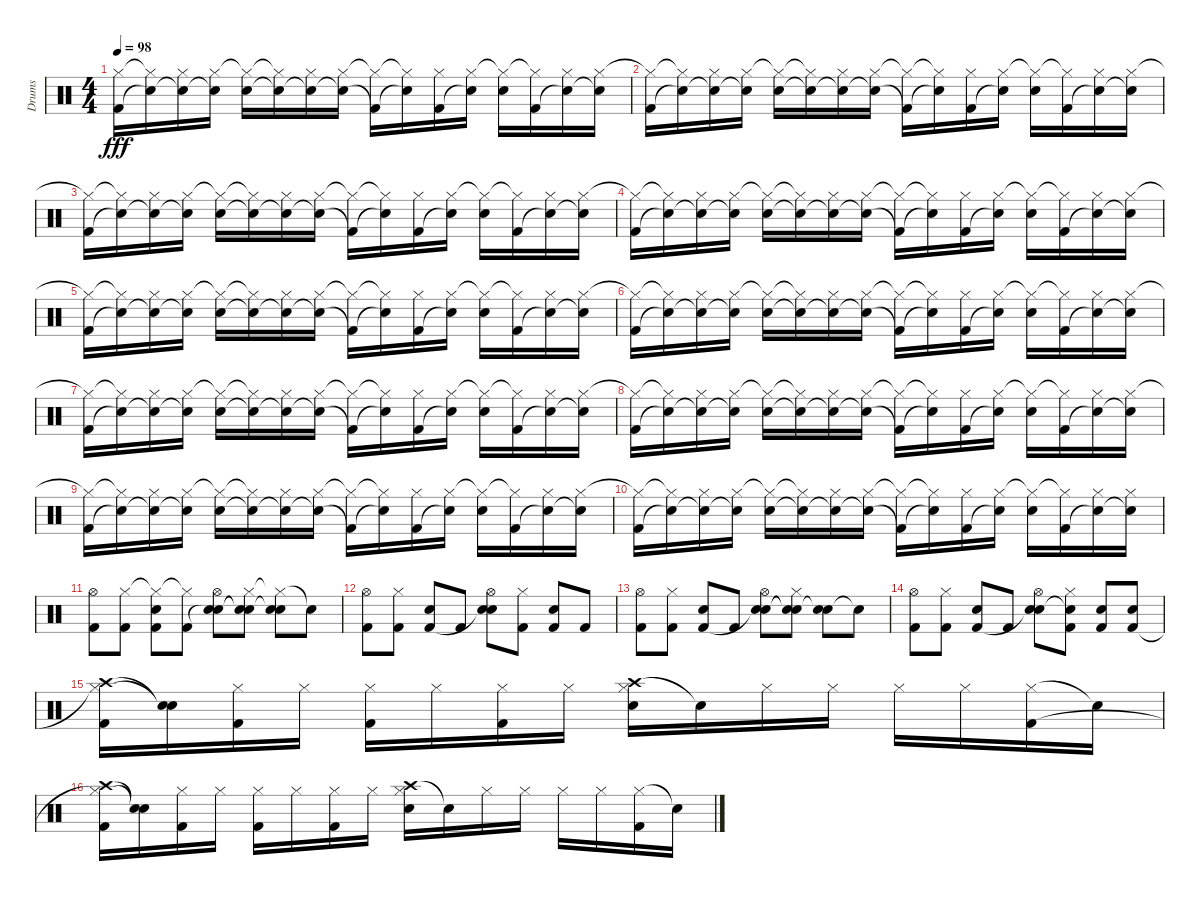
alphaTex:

\track ("Drums" "Drums") {instrument percussion}
\staff {score}
\articulation defaults
\ts (4 4)
\tempo 98
\clef neutral
\ks c
("Hi-Hat (closed)"{t} "Kick (hit) 2").16{dy fff} ("Hi-Hat (closed)"{t} "Snare (hit)"{t}).16 ("Hi-Hat (closed)" "Snare (hit)"{t}).16 ("Hi-Hat (closed)" "Snare (hit)"{t}).16 ("Hi-Hat (closed)"{t} "Electric Snare (hit)").16 ("Hi-Hat (closed)"{t} "Snare (hit)"{t}).16 ("Hi-Hat (closed)" "Snare (hit)"{t}).16 ("Hi-Hat (closed)" "Snare (hit)"{t}).16 ("Hi-Hat (closed)"{t} "Kick (hit) 2"{t}).16 ("Hi-Hat (closed)"{t} "Snare (hit)"{t}).16 ("Hi-Hat (closed)" "Kick (hit) 2").16 ("Hi-Hat (closed)" "Electric Snare (hit)"{t}).16 ("Hi-Hat (closed)"{t} "Electric Snare (hit)").16 ("Hi-Hat (closed)"{t} "Kick (hit) 2").16 ("Hi-Hat (closed)" "Electric Snare (hit)"{t}).16 ("Hi-Hat (closed)" "Snare (hit)"{t}).16 |
("Hi-Hat (closed)"{t} "Kick (hit) 2").16 ("Hi-Hat (closed)"{t} "Snare (hit)"{t}).16 ("Hi-Hat (closed)" "Snare (hit)"{t}).16 ("Hi-Hat (closed)" "Snare (hit)"{t}).16 ("Hi-Hat (closed)"{t} "Electric Snare (hit)").16 ("Hi-Hat (closed)"{t} "Snare (hit)"{t}).16 ("Hi-Hat (closed)" "Snare (hit)"{t}).16 ("Hi-Hat (closed)" "Snare (hit)"{t}).16 ("Hi-Hat (closed)"{t} "Kick (hit) 2"{t}).16 ("Hi-Hat (closed)"{t} "Snare (hit)"{t}).16 ("Hi-Hat (closed)" "Kick (hit) 2").16 ("Hi-Hat (closed)" "Electric Snare (hit)"{t}).16 ("Hi-Hat (closed)"{t} "Electric Snare (hit)").16 ("Hi-Hat (closed)"{t} "Kick (hit) 2").16 ("Hi-Hat (closed)" "Electric Snare (hit)"{t}).16 ("Hi-Hat (closed)" "Snare (hit)"{t}).16 |
("Hi-Hat (closed)"{t} "Kick (hit) 2").16 ("Hi-Hat (closed)"{t} "Snare (hit)"{t}).16 ("Hi-Hat (closed)" "Snare (hit)"{t}).16 ("Hi-Hat (closed)" "Snare (hit)"{t}).16 ("Hi-Hat (closed)"{t} "Electric Snare (hit)").16 ("Hi-Hat (closed)"{t} "Snare (hit)"{t}).16 ("Hi-Hat (closed)" "Snare (hit)"{t}).16 ("Hi-Hat (closed)" "Snare (hit)"{t}).16 ("Hi-Hat (closed)"{t} "Kick (hit) 2"{t}).16 ("Hi-Hat (closed)"{t} "Snare (hit)"{t}).16 ("Hi-Hat (closed)" "Kick (hit) 2").16 ("Hi-Hat (closed)" "Electric Snare (hit)"{t}).16 ("Hi-Hat (closed)"{t} "Electric Snare (hit)").16 ("Hi-Hat (closed)"{t} "Kick (hit) 2").16 ("Hi-Hat (closed)" "Electric Snare (hit)"{t}).16 ("Hi-Hat (closed)" "Snare (hit)"{t}).16 |
("Hi-Hat (closed)"{t} "Kick (hit) 2").16 ("Hi-Hat (closed)"{t} "Snare (hit)"{t}).16 ("Hi-Hat (closed)" "Snare (hit)"{t}).16 ("Hi-Hat (closed)" "Snare (hit)"{t}).16 ("Hi-Hat (closed)"{t} "Electric Snare (hit)").16 ("Hi-Hat (closed)"{t} "Snare (hit)"{t}).16 ("Hi-Hat (closed)" "Snare (hit)"{t}).16 ("Hi-Hat (closed)" "Snare (hit)"{t}).16 ("Hi-Hat (closed)"{t} "Kick (hit) 2"{t}).16 ("Hi-Hat (closed)"{t} "Snare (hit)"{t}).16 ("Hi-Hat (closed)" "Kick (hit) 2").16 ("Hi-Hat (closed)" "Electric Snare (hit)"{t}).16 ("Hi-Hat (closed)"{t} "Electric Snare (hit)").16 ("Hi-Hat (closed)"{t} "Kick (hit) 2").16 ("Hi-Hat (closed)" "Electric Snare (hit)"{t}).16 ("Hi-Hat (closed)" "Snare (hit)"{t}).16 |
("Hi-Hat (closed)"{t} "Kick (hit) 2").16 ("Hi-Hat (closed)"{t} "Snare (hit)"{t}).16 ("Hi-Hat (closed)" "Snare (hit)"{t}).16 ("Hi-Hat (closed)" "Snare (hit)"{t}).16 ("Hi-Hat (closed)"{t} "Electric Snare (hit)").16 ("Hi-Hat (closed)"{t} "Snare (hit)"{t}).16 ("Hi-Hat (closed)" "Snare (hit)"{t}).16 ("Hi-Hat (closed)" "Snare (hit)"{t}).16 ("Hi-Hat (closed)"{t} "Kick (hit) 2"{t}).16 ("Hi-Hat (closed)"{t} "Snare (hit)"{t}).16 ("Hi-Hat (closed)" "Kick (hit) 2").16 ("Hi-Hat (closed)" "Electric Snare (hit)"{t}).16 ("Hi-Hat (closed)"{t} "Electric Snare (hit)").16 ("Hi-Hat (closed)"{t} "Kick (hit) 2").16 ("Hi-Hat (closed)" "Electric Snare (hit)"{t}).16 ("Hi-Hat (closed)" "Snare (hit)"{t}).16 |
("Hi-Hat (closed)"{t} "Kick (hit) 2").16 ("Hi-Hat (closed)"{t} "Snare (hit)"{t}).16 ("Hi-Hat (closed)" "Snare (hit)"{t}).16 ("Hi-Hat (closed)" "Snare (hit)"{t}).16 ("Hi-Hat (closed)"{t} "Electric Snare (hit)").16 ("Hi-Hat (closed)"{t} "Snare (hit)"{t}).16 ("Hi-Hat (closed)" "Snare (hit)"{t}).16 ("Hi-Hat (closed)" "Snare (hit)"{t}).16 ("Hi-Hat (closed)"{t} "Kick (hit) 2"{t}).16 ("Hi-Hat (closed)"{t} "Snare (hit)"{t}).16 ("Hi-Hat (closed)" "Kick (hit) 2").16 ("Hi-Hat (closed)" "Electric Snare (hit)"{t}).16 ("Hi-Hat (closed)"{t} "Electric Snare (hit)").16 ("Hi-Hat (closed)"{t} "Kick (hit) 2").16 ("Hi-Hat (closed)" "Electric Snare (hit)"{t}).16 ("Hi-Hat (closed)" "Snare (hit)"{t}).16 |
("Hi-Hat (closed)"{t} "Kick (hit) 2").16 ("Hi-Hat (closed)"{t} "Snare (hit)"{t}).16 ("Hi-Hat (closed)" "Snare (hit)"{t}).16 ("Hi-Hat (closed)" "Snare (hit)"{t}).16 ("Hi-Hat (closed)"{t} "Electric Snare (hit)").16 ("Hi-Hat (closed)"{t} "Snare (hit)"{t}).16 ("Hi-Hat (closed)" "Snare (hit)"{t}).16 ("Hi-Hat (closed)" "Snare (hit)"{t}).16 ("Hi-Hat (closed)"{t} "Kick (hit) 2"{t}).16 ("Hi-Hat (closed)"{t} "Snare (hit)"{t}).16 ("Hi-Hat (closed)" "Kick (hit) 2").16 ("Hi-Hat (closed)" "Electric Snare (hit)"{t}).16 ("Hi-Hat (closed)"{t} "Electric Snare (hit)").16 ("Hi-Hat (closed)"{t} "Kick (hit) 2").16 ("Hi-Hat (closed)" "Electric Snare (hit)"{t}).16 ("Hi-Hat (closed)" "Snare (hit)"{t}).16 |
("Hi-Hat (closed)"{t} "Kick (hit) 2").16 ("Hi-Hat (closed)"{t} "Snare (hit)"{t}).16 ("Hi-Hat (closed)" "Snare (hit)"{t}).16 ("Hi-Hat (closed)" "Snare (hit)"{t}).16 ("Hi-Hat (closed)"{t} "Electric Snare (hit)").16 ("Hi-Hat (closed)"{t} "Snare (hit)"{t}).16 ("Hi-Hat (closed)" "Snare (hit)"{t}).16 ("Hi-Hat (closed)" "Snare (hit)"{t}).16 ("Hi-Hat (closed)"{t} "Kick (hit) 2"{t}).16 ("Hi-Hat (closed)"{t} "Snare (hit)"{t}).16 ("Hi-Hat (closed)" "Kick (hit) 2").16 ("Hi-Hat (closed)" "Electric Snare (hit)"{t}).16 ("Hi-Hat (closed)"{t} "Electric Snare (hit)").16 ("Hi-Hat (closed)"{t} "Kick (hit) 2").16 ("Hi-Hat (closed)" "Electric Snare (hit)"{t}).16 ("Hi-Hat (closed)" "Snare (hit)"{t}).16 |
("Hi-Hat (closed)"{t} "Kick (hit) 2").16 ("Hi-Hat (closed)"{t} "Snare (hit)"{t}).16 ("Hi-Hat (closed)" "Snare (hit)"{t}).16 ("Hi-Hat (closed)" "Snare (hit)"{t}).16 ("Hi-Hat (closed)"{t} "Electric Snare (hit)").16 ("Hi-Hat (closed)"{t} "Snare (hit)"{t}).16 ("Hi-Hat (closed)" "Snare (hit)"{t}).16 ("Hi-Hat (closed)" "Snare (hit)"{t}).16 ("Hi-Hat (closed)"{t} "Kick (hit) 2"{t}).16 ("Hi-Hat (closed)"{t} "Snare (hit)"{t}).16 ("Hi-Hat (closed)" "Kick (hit) 2").16 ("Hi-Hat (closed)" "Electric Snare (hit)"{t}).16 ("Hi-Hat (closed)"{t} "Electric Snare (hit)").16 ("Hi-Hat (closed)"{t} "Kick (hit) 2").16 ("Hi-Hat (closed)" "Electric Snare (hit)"{t}).16 ("Hi-Hat (closed)" "Snare (hit)"{t}).16 |
("Hi-Hat (closed)"{t} "Kick (hit) 2").16 ("Hi-Hat (closed)"{t} "Snare (hit)"{t}).16 ("Hi-Hat (closed)" "Snare (hit)"{t}).16 ("Hi-Hat (closed)" "Snare (hit)"{t}).16 ("Hi-Hat (closed)"{t} "Electric Snare (hit)").16 ("Hi-Hat (closed)"{t} "Snare (hit)"{t}).16 ("Hi-Hat (closed)" "Snare (hit)"{t}).16 ("Hi-Hat (closed)" "Snare (hit)"{t}).16 ("Hi-Hat (closed)"{t} "Kick (hit) 2"{t}).16 ("Hi-Hat (closed)"{t} "Snare (hit)"{t}).16 ("Hi-Hat (closed)" "Kick (hit) 2").16 ("Hi-Hat (closed)" "Electric Snare (hit)"{t}).16 ("Hi-Hat (closed)"{t} "Electric Snare (hit)").16 ("Hi-Hat (closed)"{t} "Kick (hit) 2").16 ("Hi-Hat (closed)" "Electric Snare (hit)"{t}).16 ("Hi-Hat (closed)" "Snare (hit)"{t}).16 |
("Hi-Hat (open)" "Kick (hit) 2").8 ("Hi-Hat (closed)" "Kick (hit) 2").8 ("Hi-Hat (closed)"{t} "Hand Clap (hit)" "Kick (hit) 2").8 ("Hi-Hat (closed)"{t} "Kick (hit) 2").8 ("Hi-Hat (open)" "Hand Clap (hit)"{t} "Electric Snare (hit)").8 ("Hi-Hat (closed)" "Hand Clap (hit)"{t} "Electric Snare (hit)"{t}).8 ("Hi-Hat (closed)"{t} "Hand Clap (hit)" "Snare (hit)"{t}).8 "Snare (hit)"{t}.8 |
("Hi-Hat (open)" "Kick (hit) 2").8 ("Hi-Hat (closed)" "Kick (hit) 2").8 ("Hand Clap (hit)" "Kick (hit) 2").8 "Kick (hit) 2".8 ("Hi-Hat (open)" "Hand Clap (hit)"{t} "Electric Snare (hit)").8 ("Hi-Hat (closed)" "Kick (hit) 2").8 ("Hand Clap (hit)" "Kick (hit) 2").8 "Kick (hit) 2".8 |
("Hi-Hat (open)" "Kick (hit) 2").8 ("Hi-Hat (closed)" "Kick (hit) 2").8 ("Hand Clap (hit)" "Kick (hit) 2").8 "Kick (hit) 2".8 ("Hi-Hat (open)" "Hand Clap (hit)"{t} "Electric Snare (hit)").8 ("Hi-Hat (closed)" "Hand Clap (hit)"{t} "Electric Snare (hit)"{t}).8 ("Hand Clap (hit)" "Snare (hit)"{t}).8 "Snare (hit)"{t}.8 |
("Hi-Hat (open)" "Kick (hit) 2").8 ("Hi-Hat (closed)" "Kick (hit) 2").8 ("Hand Clap (hit)" "Kick (hit) 2").8 "Kick (hit) 2".8 ("Hi-Hat (open)" "Hand Clap (hit)"{t} "Electric Snare (hit)").8 ("Hi-Hat (closed)" "Hand Clap (hit)"{t} "Kick (hit) 2").8 ("Hand Clap (hit)" "Kick (hit) 2").8 ("Hand Clap (hit)" "Kick (hit) 2").8 |
("Crash high (hit)" "Hi-Hat (closed)"{t} "Kick (hit) 2").16 ("Snare (hit)"{t} "Snare (hit)"{t}).16 ("Hi-Hat (closed)" "Kick (hit) 2").16 "Hi-Hat (closed)".16 ("Hi-Hat (closed)" "Kick (hit) 2").16 "Hi-Hat (closed)".16 ("Hi-Hat (closed)" "Kick (hit) 2").16 "Hi-Hat (closed)".16 ("Crash high (hit)" "Hi-Hat (closed)" "Electric Snare (hit)").16 "Snare (hit)"{t}.16 "Hi-Hat (closed)".16 "Hi-Hat (closed)".16 "Hi-Hat (closed)".16 "Hi-Hat (closed)".16 ("Hi-Hat (closed)" "Kick (hit) 2").16 "Snare (hit)"{t}.16 |
("Crash high (hit)" "Hi-Hat (closed)"{t} "Kick (hit) 2").16 ("Snare (hit)"{t} "Snare (hit)"{t}).16 ("Hi-Hat (closed)" "Kick (hit) 2").16 "Hi-Hat (closed)".16 ("Hi-Hat (closed)" "Kick (hit) 2").16 "Hi-Hat (closed)".16 ("Hi-Hat (closed)" "Kick (hit) 2").16 "Hi-Hat (closed)".16 ("Crash high (hit)" "Hi-Hat (closed)" "Electric Snare (hit)").16 "Snare (hit)"{t}.16 "Hi-Hat (closed)".16 "Hi-Hat (closed)".16 "Hi-Hat (closed)".16 "Hi-Hat (closed)".16 ("Hi-Hat (closed)" "Kick (hit) 2").16 "Snare (hit)"{t}.16
